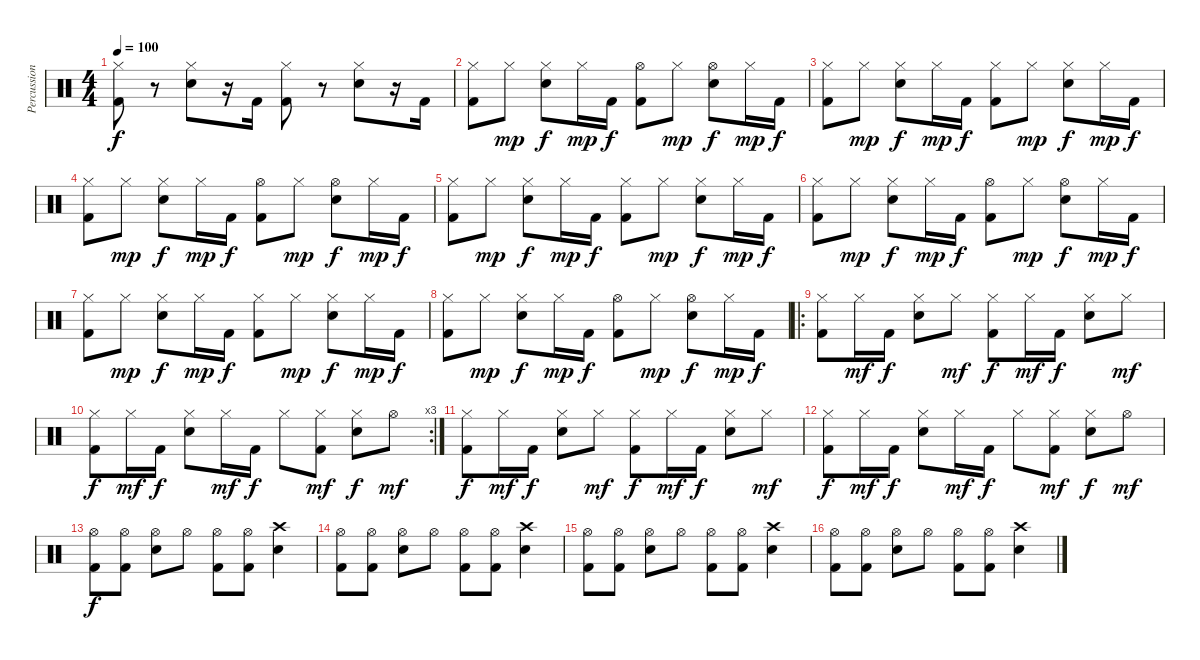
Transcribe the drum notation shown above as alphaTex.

\track ("Percussioni" "Percussion") {instrument percussion}
\staff {score}
\articulation defaults
\ts (4 4)
\tempo 100
\clef neutral
\ks c
("Hi-Hat (closed)" "Kick (hit) 2").8{dy f} r.8 ("Hi-Hat (closed)" "Snare (hit) 2").8 r.16 "Kick (hit) 2".16 ("Hi-Hat (closed)" "Kick (hit) 2").8 r.8 ("Hi-Hat (closed)" "Snare (hit) 2").8 r.16 "Kick (hit) 2".16 |
("Hi-Hat (closed)" "Kick (hit) 2").8 "Hi-Hat (closed)".8{dy mp} ("Hi-Hat (closed)" "Snare (hit) 2").8{dy f} "Hi-Hat (closed)".16{dy mp} "Kick (hit) 2".16{dy f} ("Hi-Hat (open)" "Kick (hit) 2").8 "Hi-Hat (closed)".8{dy mp} ("Hi-Hat (open)" "Snare (hit) 2").8{dy f} "Hi-Hat (closed)".16{dy mp} "Kick (hit) 2".16{dy f} |
("Hi-Hat (closed)" "Kick (hit) 2").8 "Hi-Hat (closed)".8{dy mp} ("Hi-Hat (closed)" "Snare (hit) 2").8{dy f} "Hi-Hat (closed)".16{dy mp} "Kick (hit) 2".16{dy f} ("Hi-Hat (closed)" "Kick (hit) 2").8 "Hi-Hat (closed)".8{dy mp} ("Hi-Hat (closed)" "Snare (hit) 2").8{dy f} "Hi-Hat (closed)".16{dy mp} "Kick (hit) 2".16{dy f} |
("Hi-Hat (closed)" "Kick (hit) 2").8 "Hi-Hat (closed)".8{dy mp} ("Hi-Hat (closed)" "Snare (hit) 2").8{dy f} "Hi-Hat (closed)".16{dy mp} "Kick (hit) 2".16{dy f} ("Hi-Hat (open)" "Kick (hit) 2").8 "Hi-Hat (closed)".8{dy mp} ("Hi-Hat (open)" "Snare (hit) 2").8{dy f} "Hi-Hat (closed)".16{dy mp} "Kick (hit) 2".16{dy f} |
("Hi-Hat (closed)" "Kick (hit) 2").8 "Hi-Hat (closed)".8{dy mp} ("Hi-Hat (closed)" "Snare (hit) 2").8{dy f} "Hi-Hat (closed)".16{dy mp} "Kick (hit) 2".16{dy f} ("Hi-Hat (closed)" "Kick (hit) 2").8 "Hi-Hat (closed)".8{dy mp} ("Hi-Hat (closed)" "Snare (hit) 2").8{dy f} "Hi-Hat (closed)".16{dy mp} "Kick (hit) 2".16{dy f} |
("Hi-Hat (closed)" "Kick (hit) 2").8 "Hi-Hat (closed)".8{dy mp} ("Hi-Hat (closed)" "Snare (hit) 2").8{dy f} "Hi-Hat (closed)".16{dy mp} "Kick (hit) 2".16{dy f} ("Hi-Hat (open)" "Kick (hit) 2").8 "Hi-Hat (closed)".8{dy mp} ("Hi-Hat (open)" "Snare (hit) 2").8{dy f} "Hi-Hat (closed)".16{dy mp} "Kick (hit) 2".16{dy f} |
("Hi-Hat (closed)" "Kick (hit) 2").8 "Hi-Hat (closed)".8{dy mp} ("Hi-Hat (closed)" "Snare (hit) 2").8{dy f} "Hi-Hat (closed)".16{dy mp} "Kick (hit) 2".16{dy f} ("Hi-Hat (closed)" "Kick (hit) 2").8 "Hi-Hat (closed)".8{dy mp} ("Hi-Hat (closed)" "Snare (hit) 2").8{dy f} "Hi-Hat (closed)".16{dy mp} "Kick (hit) 2".16{dy f} |
("Hi-Hat (closed)" "Kick (hit) 2").8 "Hi-Hat (closed)".8{dy mp} ("Hi-Hat (closed)" "Snare (hit) 2").8{dy f} "Hi-Hat (closed)".16{dy mp} "Kick (hit) 2".16{dy f} ("Hi-Hat (open)" "Kick (hit) 2").8 "Hi-Hat (closed)".8{dy mp} ("Hi-Hat (open)" "Snare (hit) 2").8{dy f} "Hi-Hat (closed)".16{dy mp} "Kick (hit) 2".16{dy f} |
\ro
("Hi-Hat (closed)" "Kick (hit) 2").8 "Hi-Hat (closed)".16{dy mf} "Kick (hit) 2".16{dy f} ("Hi-Hat (closed)" "Snare (hit) 2").8 "Hi-Hat (closed)".8{dy mf} ("Hi-Hat (closed)" "Kick (hit) 2").8{dy f} "Hi-Hat (closed)".16{dy mf} "Kick (hit) 2".16{dy f} ("Hi-Hat (closed)" "Snare (hit) 2").8 "Hi-Hat (closed)".8{dy mf} |
\rc 3
("Hi-Hat (closed)" "Kick (hit) 2").8{dy f} "Hi-Hat (closed)".16{dy mf} "Kick (hit) 2".16{dy f} ("Hi-Hat (closed)" "Snare (hit) 2").8 "Hi-Hat (closed)".16{dy mf} "Kick (hit) 2".16{dy f} "Hi-Hat (closed)".8 ("Hi-Hat (closed)" "Kick (hit) 2").8{dy mf} ("Hi-Hat (closed)" "Snare (hit) 2").8{dy f} "Hi-Hat (open)".8{dy mf} |
("Hi-Hat (closed)" "Kick (hit) 2").8{dy f} "Hi-Hat (closed)".16{dy mf} "Kick (hit) 2".16{dy f} ("Hi-Hat (closed)" "Snare (hit) 2").8 "Hi-Hat (closed)".8{dy mf} ("Hi-Hat (closed)" "Kick (hit) 2").8{dy f} "Hi-Hat (closed)".16{dy mf} "Kick (hit) 2".16{dy f} ("Hi-Hat (closed)" "Snare (hit) 2").8 "Hi-Hat (closed)".8{dy mf} |
("Hi-Hat (closed)" "Kick (hit) 2").8{dy f} "Hi-Hat (closed)".16{dy mf} "Kick (hit) 2".16{dy f} ("Hi-Hat (closed)" "Snare (hit) 2").8 "Hi-Hat (closed)".16{dy mf} "Kick (hit) 2".16{dy f} "Hi-Hat (closed)".8 ("Hi-Hat (closed)" "Kick (hit) 2").8{dy mf} ("Hi-Hat (closed)" "Snare (hit) 2").8{dy f} "Hi-Hat (open)".8{dy mf} |
("Hi-Hat (open)" "Kick (hit) 2").8{dy f} ("Hi-Hat (open)" "Kick (hit) 2").8 ("Hi-Hat (open)" "Snare (hit) 2").8 "Hi-Hat (open)".8 ("Hi-Hat (open)" "Kick (hit) 2").8 ("Hi-Hat (open)" "Kick (hit) 2").8 ("Crash high (hit)" "Snare (hit) 2").4 |
("Hi-Hat (open)" "Kick (hit) 2").8 ("Hi-Hat (open)" "Kick (hit) 2").8 ("Hi-Hat (open)" "Snare (hit) 2").8 "Hi-Hat (open)".8 ("Hi-Hat (open)" "Kick (hit) 2").8 ("Hi-Hat (open)" "Kick (hit) 2").8 ("Crash high (hit)" "Snare (hit) 2").4 |
("Hi-Hat (open)" "Kick (hit) 2").8 ("Hi-Hat (open)" "Kick (hit) 2").8 ("Hi-Hat (open)" "Snare (hit) 2").8 "Hi-Hat (open)".8 ("Hi-Hat (open)" "Kick (hit) 2").8 ("Hi-Hat (open)" "Kick (hit) 2").8 ("Crash high (hit)" "Snare (hit) 2").4 |
("Hi-Hat (open)" "Kick (hit) 2").8 ("Hi-Hat (open)" "Kick (hit) 2").8 ("Hi-Hat (open)" "Snare (hit) 2").8 "Hi-Hat (open)".8 ("Hi-Hat (open)" "Kick (hit) 2").8 ("Hi-Hat (open)" "Kick (hit) 2").8 ("Crash high (hit)" "Snare (hit) 2").4
